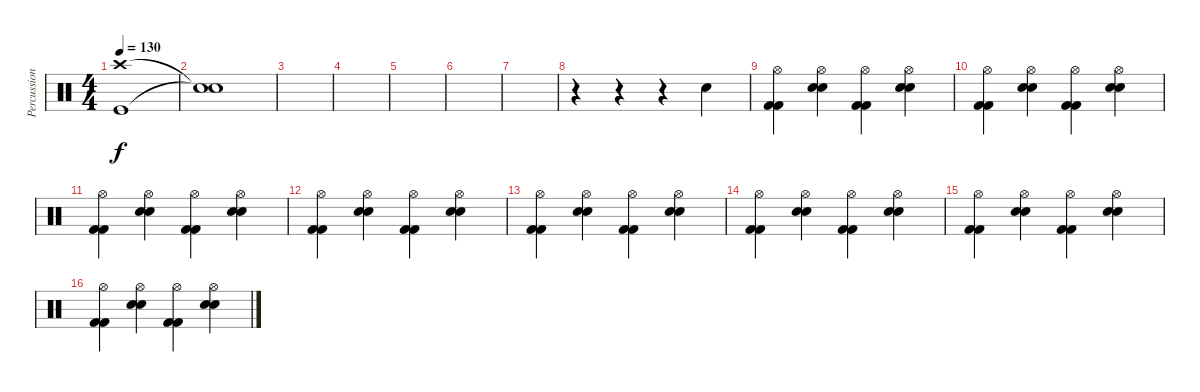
\track ("Percussion" "Percussion") {instrument percussion}
\staff {score}
\articulation defaults
\ts (4 4)
\tempo 130
\clef neutral
\ks c
("Crash high (hit)" "Kick (hit)").1{dy f} |
("Snare (hit)"{t} "Snare (hit)"{t}).1 |
|
|
|
|
|
r.4 r.4 r.4 "Snare (hit) 2".4 |
("Hi-Hat (open)" "Kick (hit) 2" "Kick (hit) 2").4 ("Hi-Hat (open)" "Snare (hit) 2" "Snare (hit) 2").4 ("Hi-Hat (open)" "Kick (hit) 2" "Kick (hit) 2").4 ("Hi-Hat (open)" "Snare (hit) 2" "Snare (hit) 2").4 |
("Hi-Hat (open)" "Kick (hit) 2" "Kick (hit) 2").4 ("Hi-Hat (open)" "Snare (hit) 2" "Snare (hit) 2").4 ("Hi-Hat (open)" "Kick (hit) 2" "Kick (hit) 2").4 ("Hi-Hat (open)" "Snare (hit) 2" "Snare (hit) 2").4 |
("Hi-Hat (open)" "Kick (hit) 2" "Kick (hit) 2").4 ("Hi-Hat (open)" "Snare (hit) 2" "Snare (hit) 2").4 ("Hi-Hat (open)" "Kick (hit) 2" "Kick (hit) 2").4 ("Hi-Hat (open)" "Snare (hit) 2" "Snare (hit) 2").4 |
("Hi-Hat (open)" "Kick (hit) 2" "Kick (hit) 2").4 ("Hi-Hat (open)" "Snare (hit) 2" "Snare (hit) 2").4 ("Hi-Hat (open)" "Kick (hit) 2" "Kick (hit) 2").4 ("Hi-Hat (open)" "Snare (hit) 2" "Snare (hit) 2").4 |
("Hi-Hat (open)" "Kick (hit) 2" "Kick (hit) 2").4 ("Hi-Hat (open)" "Snare (hit) 2" "Snare (hit) 2").4 ("Hi-Hat (open)" "Kick (hit) 2" "Kick (hit) 2").4 ("Hi-Hat (open)" "Snare (hit) 2" "Snare (hit) 2").4 |
("Hi-Hat (open)" "Kick (hit) 2" "Kick (hit) 2").4 ("Hi-Hat (open)" "Snare (hit) 2" "Snare (hit) 2").4 ("Hi-Hat (open)" "Kick (hit) 2" "Kick (hit) 2").4 ("Hi-Hat (open)" "Snare (hit) 2" "Snare (hit) 2").4 |
("Hi-Hat (open)" "Kick (hit) 2" "Kick (hit) 2").4 ("Hi-Hat (open)" "Snare (hit) 2" "Snare (hit) 2").4 ("Hi-Hat (open)" "Kick (hit) 2" "Kick (hit) 2").4 ("Hi-Hat (open)" "Snare (hit) 2" "Snare (hit) 2").4 |
("Hi-Hat (open)" "Kick (hit) 2" "Kick (hit) 2").4 ("Hi-Hat (open)" "Snare (hit) 2" "Snare (hit) 2").4 ("Hi-Hat (open)" "Kick (hit) 2" "Kick (hit) 2").4 ("Hi-Hat (open)" "Snare (hit) 2" "Snare (hit) 2").4
